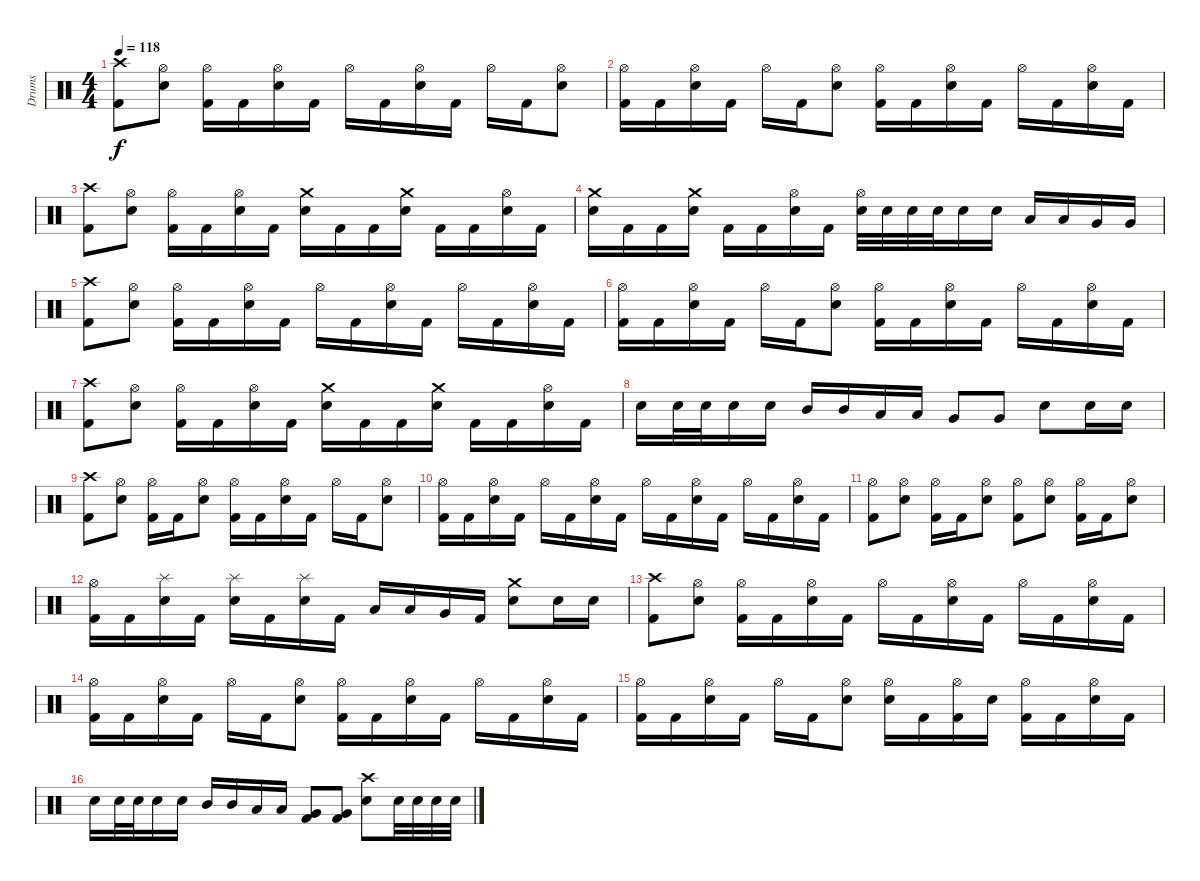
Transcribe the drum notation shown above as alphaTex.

\track ("Drums" "Drums") {instrument percussion}
\staff
\articulation defaults
\ts (4 4)
\tempo 118
\clef neutral
\ks c
("Crash high (hit)" "Kick (hit) 2").8{dy f} ("Hi-Hat (open)" "Snare (hit) 2").8 ("Hi-Hat (open)" "Kick (hit) 2").16 "Kick (hit) 2".16 ("Hi-Hat (open)" "Snare (hit) 2").16 "Kick (hit) 2".16 "Hi-Hat (open)".16 "Kick (hit) 2".16 ("Hi-Hat (open)" "Snare (hit) 2").16 "Kick (hit) 2".16 "Hi-Hat (open)".16 "Kick (hit) 2".16 ("Hi-Hat (open)" "Snare (hit) 2").8 |
("Hi-Hat (open)" "Kick (hit) 2").16 "Kick (hit) 2".16 ("Hi-Hat (open)" "Snare (hit) 2").16 "Kick (hit) 2".16 "Hi-Hat (open)".16 "Kick (hit) 2".16 ("Hi-Hat (open)" "Snare (hit) 2").8 ("Hi-Hat (open)" "Kick (hit) 2").16 "Kick (hit) 2".16 ("Hi-Hat (open)" "Snare (hit) 2").16 "Kick (hit) 2".16 "Hi-Hat (open)".16 "Kick (hit) 2".16 ("Hi-Hat (open)" "Snare (hit) 2").16 "Kick (hit) 2".16 |
("Crash high (hit)" "Kick (hit) 2").8 ("Hi-Hat (open)" "Snare (hit) 2").8 ("Hi-Hat (open)" "Kick (hit) 2").16 "Kick (hit) 2".16 ("Hi-Hat (open)" "Snare (hit) 2").16 "Kick (hit) 2".16 ("Crash medium (hit)" "Snare (hit) 2").16 "Kick (hit) 2".16 "Kick (hit) 2".16 ("Crash medium (hit)" "Snare (hit) 2").16 "Kick (hit) 2".16 "Kick (hit) 2".16 ("Hi-Hat (open)" "Snare (hit) 2").16 "Kick (hit) 2".16 |
("Crash medium (hit)" "Snare (hit) 2").16 "Kick (hit) 2".16 "Kick (hit) 2".16 ("Crash medium (hit)" "Snare (hit) 2").16 "Kick (hit) 2".16 "Kick (hit) 2".16 ("Hi-Hat (open)" "Snare (hit) 2").16 "Kick (hit) 2".16 ("Hi-Hat (open)" "Snare (hit) 2").32 "Snare (hit) 2".32 "Snare (hit) 2".32 "Snare (hit) 2".32 "Snare (hit) 2".16 "Snare (hit) 2".16 "Low Tom (hit)".16 "Low Tom (hit)".16 "Very Low Tom (hit)".16 "Very Low Tom (hit)".16 |
("Crash high (hit)" "Kick (hit) 2").8 ("Hi-Hat (open)" "Snare (hit) 2").8 ("Hi-Hat (open)" "Kick (hit) 2").16 "Kick (hit) 2".16 ("Hi-Hat (open)" "Snare (hit) 2").16 "Kick (hit) 2".16 "Hi-Hat (open)".16 "Kick (hit) 2".16 ("Hi-Hat (open)" "Snare (hit) 2").16 "Kick (hit) 2".16 "Hi-Hat (open)".16 "Kick (hit) 2".16 ("Hi-Hat (open)" "Snare (hit) 2").16 "Kick (hit) 2".16 |
("Hi-Hat (open)" "Kick (hit) 2").16 "Kick (hit) 2".16 ("Hi-Hat (open)" "Snare (hit) 2").16 "Kick (hit) 2".16 "Hi-Hat (open)".16 "Kick (hit) 2".16 ("Hi-Hat (open)" "Snare (hit) 2").8 ("Hi-Hat (open)" "Kick (hit) 2").16 "Kick (hit) 2".16 ("Hi-Hat (open)" "Snare (hit) 2").16 "Kick (hit) 2".16 "Hi-Hat (open)".16 "Kick (hit) 2".16 ("Hi-Hat (open)" "Snare (hit) 2").16 "Kick (hit) 2".16 |
("Crash high (hit)" "Kick (hit) 2").8 ("Hi-Hat (open)" "Snare (hit) 2").8 ("Hi-Hat (open)" "Kick (hit) 2").16 "Kick (hit) 2".16 ("Hi-Hat (open)" "Snare (hit) 2").16 "Kick (hit) 2".16 ("Crash medium (hit)" "Snare (hit) 2").16 "Kick (hit) 2".16 "Kick (hit) 2".16 ("Crash medium (hit)" "Snare (hit) 2").16 "Kick (hit) 2".16 "Kick (hit) 2".16 ("Hi-Hat (open)" "Snare (hit) 2").16 "Kick (hit) 2".16 |
"Snare (hit) 2".16 "Snare (hit) 2".32 "Snare (hit) 2".32 "Snare (hit) 2".16 "Snare (hit) 2".16 "Mid Tom (hit)".16 "Mid Tom (hit)".16 "Low Tom (hit)".16 "Low Tom (hit)".16 "Very Low Tom (hit)".8 "Very Low Tom (hit)".8 "Snare (hit) 2".8 "Snare (hit) 2".16 "Snare (hit) 2".16 |
("Crash high (hit)" "Kick (hit) 2").8 ("Hi-Hat (open)" "Snare (hit) 2").8 ("Hi-Hat (open)" "Kick (hit) 2").16 "Kick (hit) 2".16 ("Hi-Hat (open)" "Snare (hit) 2").8 ("Hi-Hat (open)" "Kick (hit) 2").16 "Kick (hit) 2".16 ("Hi-Hat (open)" "Snare (hit) 2").16 "Kick (hit) 2".16 "Hi-Hat (open)".16 "Kick (hit) 2".16 ("Hi-Hat (open)" "Snare (hit) 2").8 |
("Hi-Hat (open)" "Kick (hit) 2").16 "Kick (hit) 2".16 ("Hi-Hat (open)" "Snare (hit) 2").16 "Kick (hit) 2".16 "Hi-Hat (open)".16 "Kick (hit) 2".16 ("Hi-Hat (open)" "Snare (hit) 2").16 "Kick (hit) 2".16 "Hi-Hat (open)".16 "Kick (hit) 2".16 ("Hi-Hat (open)" "Snare (hit) 2").16 "Kick (hit) 2".16 "Hi-Hat (open)".16 "Kick (hit) 2".16 ("Hi-Hat (open)" "Snare (hit) 2").16 "Kick (hit) 2".16 |
("Hi-Hat (open)" "Kick (hit) 2").8 ("Hi-Hat (open)" "Snare (hit) 2").8 ("Hi-Hat (open)" "Kick (hit) 2").16 "Kick (hit) 2".16 ("Hi-Hat (open)" "Snare (hit) 2").8 ("Hi-Hat (open)" "Kick (hit) 2").8 ("Hi-Hat (open)" "Snare (hit) 2").8 ("Hi-Hat (open)" "Kick (hit) 2").16 "Kick (hit) 2".16 ("Hi-Hat (open)" "Snare (hit) 2").8 |
("Hi-Hat (open)" "Kick (hit) 2").16 "Kick (hit) 2".16 ("Splash (hit)" "Snare (hit) 2").16 "Kick (hit) 2".16 ("Splash (hit)" "Snare (hit) 2").16 "Kick (hit) 2".16 ("Splash (hit)" "Snare (hit) 2").16 "Kick (hit) 2".16 "Low Tom (hit)".16 "Low Tom (hit)".16 "Very Low Tom (hit)".16 "Kick (hit) 2".16 ("Crash medium (hit)" "Snare (hit) 2").8 "Snare (hit) 2".16 "Snare (hit) 2".16 |
("Crash high (hit)" "Kick (hit) 2").8 ("Hi-Hat (open)" "Snare (hit) 2").8 ("Hi-Hat (open)" "Kick (hit) 2").16 "Kick (hit) 2".16 ("Hi-Hat (open)" "Snare (hit) 2").16 "Kick (hit) 2".16 "Hi-Hat (open)".16 "Kick (hit) 2".16 ("Hi-Hat (open)" "Snare (hit) 2").16 "Kick (hit) 2".16 "Hi-Hat (open)".16 "Kick (hit) 2".16 ("Hi-Hat (open)" "Snare (hit) 2").16 "Kick (hit) 2".16 |
("Hi-Hat (open)" "Kick (hit) 2").16 "Kick (hit) 2".16 ("Hi-Hat (open)" "Snare (hit) 2").16 "Kick (hit) 2".16 "Hi-Hat (open)".16 "Kick (hit) 2".16 ("Hi-Hat (open)" "Snare (hit) 2").8 ("Hi-Hat (open)" "Kick (hit) 2").16 "Kick (hit) 2".16 ("Hi-Hat (open)" "Snare (hit) 2").16 "Kick (hit) 2".16 "Hi-Hat (open)".16 "Kick (hit) 2".16 ("Hi-Hat (open)" "Snare (hit) 2").16 "Kick (hit) 2".16 |
("Hi-Hat (open)" "Kick (hit) 2").16 "Kick (hit) 2".16 ("Hi-Hat (open)" "Snare (hit) 2").16 "Kick (hit) 2".16 "Hi-Hat (open)".16 "Kick (hit) 2".16 ("Hi-Hat (open)" "Snare (hit) 2").8 ("Hi-Hat (open)" "Snare (hit) 2").16 "Kick (hit) 2".16 ("Hi-Hat (open)" "Kick (hit) 2").16 "Snare (hit) 2".16 ("Hi-Hat (open)" "Kick (hit) 2").16 "Kick (hit) 2".16 ("Hi-Hat (open)" "Snare (hit) 2").16 "Kick (hit) 2".16 |
"Snare (hit) 2".16 "Snare (hit) 2".32 "Snare (hit) 2".32 "Snare (hit) 2".16 "Snare (hit) 2".16 "Mid Tom (hit)".16 "Mid Tom (hit)".16 "Low Tom (hit)".16 "Low Tom (hit)".16 ("Very Low Tom (hit)" "Kick (hit) 2").8 ("Very Low Tom (hit)" "Kick (hit) 2").8 ("Crash high (hit)" "Snare (hit) 2").8 "Snare (hit) 2".32 "Snare (hit) 2".32 "Snare (hit) 2".32 "Snare (hit) 2".32
